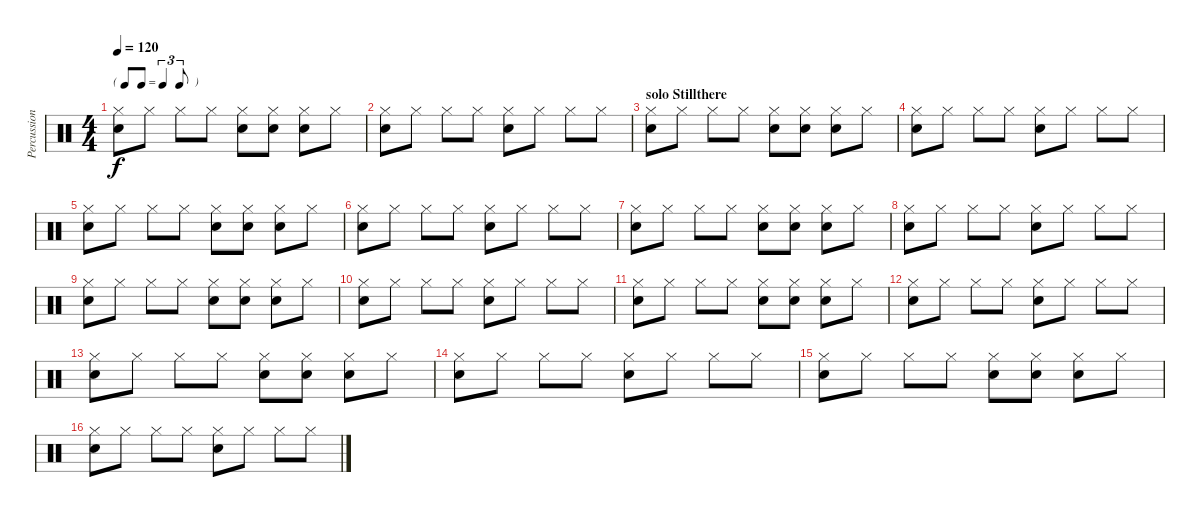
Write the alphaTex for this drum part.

\track ("Percussions" "Percussion") {instrument percussion}
\staff {score}
\articulation defaults
\ts (4 4)
\tf triplet8th
\tempo 120
\clef neutral
\ks c
("Electric Snare (hit)" "Hi-Hat (closed)").8{dy f} "Hi-Hat (closed)".8 "Hi-Hat (closed)".8 "Hi-Hat (closed)".8 ("Electric Snare (hit)" "Hi-Hat (closed)").8 ("Electric Snare (hit)" "Hi-Hat (closed)").8 ("Electric Snare (hit)" "Hi-Hat (closed)").8 "Hi-Hat (closed)".8 |
("Electric Snare (hit)" "Hi-Hat (closed)").8 "Hi-Hat (closed)".8 "Hi-Hat (closed)".8 "Hi-Hat (closed)".8 ("Electric Snare (hit)" "Hi-Hat (closed)").8 "Hi-Hat (closed)".8 "Hi-Hat (closed)".8 "Hi-Hat (closed)".8 |
\section ("" "solo Stillthere")
("Electric Snare (hit)" "Hi-Hat (closed)").8 "Hi-Hat (closed)".8 "Hi-Hat (closed)".8 "Hi-Hat (closed)".8 ("Electric Snare (hit)" "Hi-Hat (closed)").8 ("Electric Snare (hit)" "Hi-Hat (closed)").8 ("Electric Snare (hit)" "Hi-Hat (closed)").8 "Hi-Hat (closed)".8 |
("Electric Snare (hit)" "Hi-Hat (closed)").8 "Hi-Hat (closed)".8 "Hi-Hat (closed)".8 "Hi-Hat (closed)".8 ("Electric Snare (hit)" "Hi-Hat (closed)").8 "Hi-Hat (closed)".8 "Hi-Hat (closed)".8 "Hi-Hat (closed)".8 |
("Electric Snare (hit)" "Hi-Hat (closed)").8 "Hi-Hat (closed)".8 "Hi-Hat (closed)".8 "Hi-Hat (closed)".8 ("Electric Snare (hit)" "Hi-Hat (closed)").8 ("Electric Snare (hit)" "Hi-Hat (closed)").8 ("Electric Snare (hit)" "Hi-Hat (closed)").8 "Hi-Hat (closed)".8 |
("Electric Snare (hit)" "Hi-Hat (closed)").8 "Hi-Hat (closed)".8 "Hi-Hat (closed)".8 "Hi-Hat (closed)".8 ("Electric Snare (hit)" "Hi-Hat (closed)").8 "Hi-Hat (closed)".8 "Hi-Hat (closed)".8 "Hi-Hat (closed)".8 |
("Electric Snare (hit)" "Hi-Hat (closed)").8 "Hi-Hat (closed)".8 "Hi-Hat (closed)".8 "Hi-Hat (closed)".8 ("Electric Snare (hit)" "Hi-Hat (closed)").8 ("Electric Snare (hit)" "Hi-Hat (closed)").8 ("Electric Snare (hit)" "Hi-Hat (closed)").8 "Hi-Hat (closed)".8 |
("Electric Snare (hit)" "Hi-Hat (closed)").8 "Hi-Hat (closed)".8 "Hi-Hat (closed)".8 "Hi-Hat (closed)".8 ("Electric Snare (hit)" "Hi-Hat (closed)").8 "Hi-Hat (closed)".8 "Hi-Hat (closed)".8 "Hi-Hat (closed)".8 |
("Electric Snare (hit)" "Hi-Hat (closed)").8 "Hi-Hat (closed)".8 "Hi-Hat (closed)".8 "Hi-Hat (closed)".8 ("Electric Snare (hit)" "Hi-Hat (closed)").8 ("Electric Snare (hit)" "Hi-Hat (closed)").8 ("Electric Snare (hit)" "Hi-Hat (closed)").8 "Hi-Hat (closed)".8 |
("Electric Snare (hit)" "Hi-Hat (closed)").8 "Hi-Hat (closed)".8 "Hi-Hat (closed)".8 "Hi-Hat (closed)".8 ("Electric Snare (hit)" "Hi-Hat (closed)").8 "Hi-Hat (closed)".8 "Hi-Hat (closed)".8 "Hi-Hat (closed)".8 |
("Electric Snare (hit)" "Hi-Hat (closed)").8 "Hi-Hat (closed)".8 "Hi-Hat (closed)".8 "Hi-Hat (closed)".8 ("Electric Snare (hit)" "Hi-Hat (closed)").8 ("Electric Snare (hit)" "Hi-Hat (closed)").8 ("Electric Snare (hit)" "Hi-Hat (closed)").8 "Hi-Hat (closed)".8 |
("Electric Snare (hit)" "Hi-Hat (closed)").8 "Hi-Hat (closed)".8 "Hi-Hat (closed)".8 "Hi-Hat (closed)".8 ("Electric Snare (hit)" "Hi-Hat (closed)").8 "Hi-Hat (closed)".8 "Hi-Hat (closed)".8 "Hi-Hat (closed)".8 |
("Electric Snare (hit)" "Hi-Hat (closed)").8 "Hi-Hat (closed)".8 "Hi-Hat (closed)".8 "Hi-Hat (closed)".8 ("Electric Snare (hit)" "Hi-Hat (closed)").8 ("Electric Snare (hit)" "Hi-Hat (closed)").8 ("Electric Snare (hit)" "Hi-Hat (closed)").8 "Hi-Hat (closed)".8 |
("Electric Snare (hit)" "Hi-Hat (closed)").8 "Hi-Hat (closed)".8 "Hi-Hat (closed)".8 "Hi-Hat (closed)".8 ("Electric Snare (hit)" "Hi-Hat (closed)").8 "Hi-Hat (closed)".8 "Hi-Hat (closed)".8 "Hi-Hat (closed)".8 |
("Electric Snare (hit)" "Hi-Hat (closed)").8 "Hi-Hat (closed)".8 "Hi-Hat (closed)".8 "Hi-Hat (closed)".8 ("Electric Snare (hit)" "Hi-Hat (closed)").8 ("Electric Snare (hit)" "Hi-Hat (closed)").8 ("Electric Snare (hit)" "Hi-Hat (closed)").8 "Hi-Hat (closed)".8 |
("Electric Snare (hit)" "Hi-Hat (closed)").8 "Hi-Hat (closed)".8 "Hi-Hat (closed)".8 "Hi-Hat (closed)".8 ("Electric Snare (hit)" "Hi-Hat (closed)").8 "Hi-Hat (closed)".8 "Hi-Hat (closed)".8 "Hi-Hat (closed)".8
